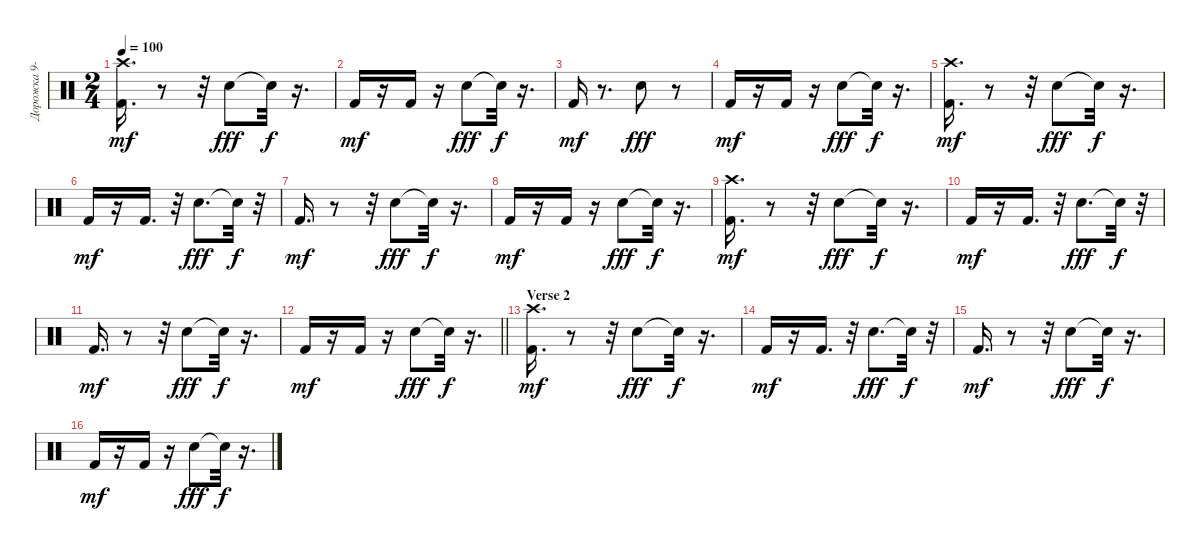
\track ("Дорожка 9-10" "Дорожка 9-") {instrument percussion}
\staff {score}
\articulation defaults
\ts (2 4)
\tempo 100
\clef neutral
\ks c
("Crash high (hit)" "Kick (hit) 2").16{d dy mf} r.8 r.32 "Snare (hit) 2".8{dy fff} "Snare (hit)"{t}.32{dy f} r.16{d} |
"Kick (hit) 2".16{dy mf} r.16 "Kick (hit) 2".16 r.16 "Snare (hit) 2".8{dy fff} "Snare (hit)"{t}.32{dy f} r.16{d} |
"Kick (hit) 2".16{dy mf} r.8{d} "Snare (hit) 2".8{dy fff} r.8 |
"Kick (hit) 2".16{dy mf} r.16 "Kick (hit) 2".16 r.16 "Snare (hit) 2".8{dy fff} "Snare (hit)"{t}.32{dy f} r.16{d} |
("Crash high (hit)" "Kick (hit) 2").16{d dy mf} r.8 r.32 "Snare (hit) 2".8{dy fff} "Snare (hit)"{t}.32{dy f} r.16{d} |
"Kick (hit) 2".16{dy mf} r.16 "Kick (hit) 2".16{d} r.32 "Snare (hit) 2".8{d dy fff} "Snare (hit)"{t}.32{dy f} r.32 |
"Kick (hit) 2".16{d dy mf} r.8 r.32 "Snare (hit) 2".8{dy fff} "Snare (hit)"{t}.32{dy f} r.16{d} |
"Kick (hit) 2".16{dy mf} r.16 "Kick (hit) 2".16 r.16 "Snare (hit) 2".8{dy fff} "Snare (hit)"{t}.32{dy f} r.16{d} |
("Crash high (hit)" "Kick (hit) 2").16{d dy mf} r.8 r.32 "Snare (hit) 2".8{dy fff} "Snare (hit)"{t}.32{dy f} r.16{d} |
"Kick (hit) 2".16{dy mf} r.16 "Kick (hit) 2".16{d} r.32 "Snare (hit) 2".8{d dy fff} "Snare (hit)"{t}.32{dy f} r.32 |
"Kick (hit) 2".16{d dy mf} r.8 r.32 "Snare (hit) 2".8{dy fff} "Snare (hit)"{t}.32{dy f} r.16{d} |
\barLineRight lightlight "Kick (hit) 2".16{dy mf}
r.16 "Kick (hit) 2".16 r.16 "Snare (hit) 2".8{dy fff} "Snare (hit)"{t}.32{dy f} r.16{d} |
\section ("" "Verse 2")
("Kick (hit) 2" "Crash high (hit)").16{d dy mf} r.8 r.32 "Snare (hit) 2".8{dy fff} "Snare (hit)"{t}.32{dy f} r.16{d} |
"Kick (hit) 2".16{dy mf} r.16 "Kick (hit) 2".16{d} r.32 "Snare (hit) 2".8{d dy fff} "Snare (hit)"{t}.32{dy f} r.32 |
"Kick (hit) 2".16{d dy mf} r.8 r.32 "Snare (hit) 2".8{dy fff} "Snare (hit)"{t}.32{dy f} r.16{d} |
"Kick (hit) 2".16{dy mf} r.16 "Kick (hit) 2".16 r.16 "Snare (hit) 2".8{dy fff} "Snare (hit)"{t}.32{dy f} r.16{d}
